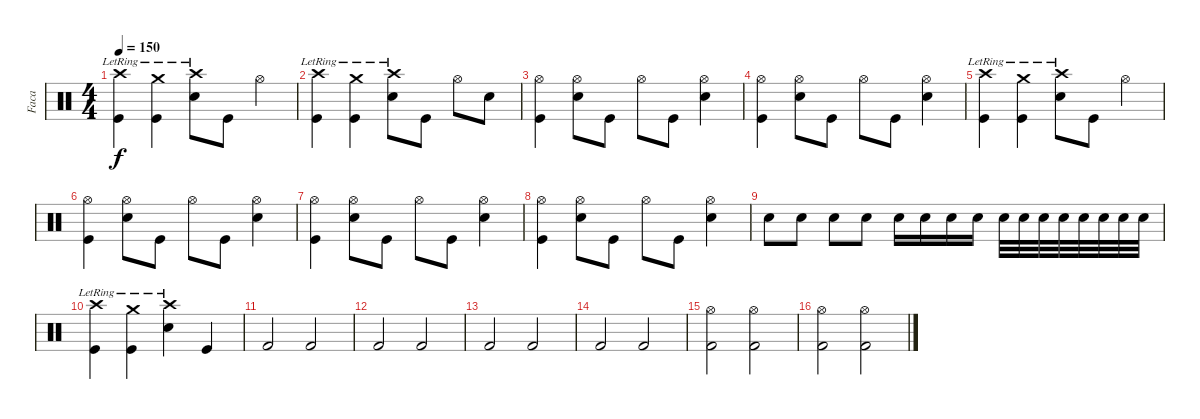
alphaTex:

\track ("Faca" "Faca") {instrument percussion}
\staff {score}
\articulation defaults
\ts (4 4)
\tempo 150
\clef neutral
\ks c
("Crash high (hit)"{lr} "Kick (hit)").4{dy f} ("Crash medium (hit)"{lr} "Kick (hit)").4 ("Crash high (hit)"{lr} "Snare (hit) 2").8 "Kick (hit)".8 "Hi-Hat (open)".4 |
("Crash high (hit)"{lr} "Kick (hit)").4 ("Crash medium (hit)"{lr} "Kick (hit)").4 ("Crash high (hit)"{lr} "Snare (hit) 2").8 "Kick (hit)".8 "Hi-Hat (open)".8 "Snare (hit) 2".8 |
("Hi-Hat (open)" "Kick (hit)").4 ("Hi-Hat (open)" "Snare (hit) 2").8 "Kick (hit)".8 "Hi-Hat (open)".8 "Kick (hit)".8 ("Hi-Hat (open)" "Snare (hit) 2").4 |
("Hi-Hat (open)" "Kick (hit)").4 ("Hi-Hat (open)" "Snare (hit) 2").8 "Kick (hit)".8 "Hi-Hat (open)".8 "Kick (hit)".8 ("Hi-Hat (open)" "Snare (hit) 2").4 |
("Crash high (hit)"{lr} "Kick (hit)").4 ("Crash medium (hit)"{lr} "Kick (hit)").4 ("Crash high (hit)"{lr} "Snare (hit) 2").8 "Kick (hit)".8 "Hi-Hat (open)".4 |
("Hi-Hat (open)" "Kick (hit)").4 ("Hi-Hat (open)" "Snare (hit) 2").8 "Kick (hit)".8 "Hi-Hat (open)".8 "Kick (hit)".8 ("Hi-Hat (open)" "Snare (hit) 2").4 |
("Hi-Hat (open)" "Kick (hit)").4 ("Hi-Hat (open)" "Snare (hit) 2").8 "Kick (hit)".8 "Hi-Hat (open)".8 "Kick (hit)".8 ("Hi-Hat (open)" "Snare (hit) 2").4 |
("Hi-Hat (open)" "Kick (hit)").4 ("Hi-Hat (open)" "Snare (hit) 2").8 "Kick (hit)".8 "Hi-Hat (open)".8 "Kick (hit)".8 ("Hi-Hat (open)" "Snare (hit) 2").4 |
"Snare (hit) 2".8 "Snare (hit) 2".8 "Snare (hit) 2".8 "Snare (hit) 2".8 "Snare (hit) 2".16 "Snare (hit) 2".16 "Snare (hit) 2".16 "Snare (hit) 2".16 "Snare (hit) 2".32 "Snare (hit) 2".32 "Snare (hit) 2".32 "Snare (hit) 2".32 "Snare (hit) 2".32 "Snare (hit) 2".32 "Snare (hit) 2".32 "Snare (hit) 2".32 |
("Crash high (hit)"{lr} "Kick (hit)").4 ("Crash medium (hit)"{lr} "Kick (hit)").4 ("Crash high (hit)"{lr} "Snare (hit) 2").4 "Kick (hit)".4 |
"Kick (hit) 2".2 "Kick (hit) 2".2 |
"Kick (hit) 2".2 "Kick (hit) 2".2 |
"Kick (hit) 2".2 "Kick (hit) 2".2 |
"Kick (hit) 2".2 "Kick (hit) 2".2 |
("Hi-Hat (open)" "Kick (hit) 2").2 ("Hi-Hat (open)" "Kick (hit) 2").2 |
("Hi-Hat (open)" "Kick (hit) 2").2 ("Hi-Hat (open)" "Kick (hit) 2").2
